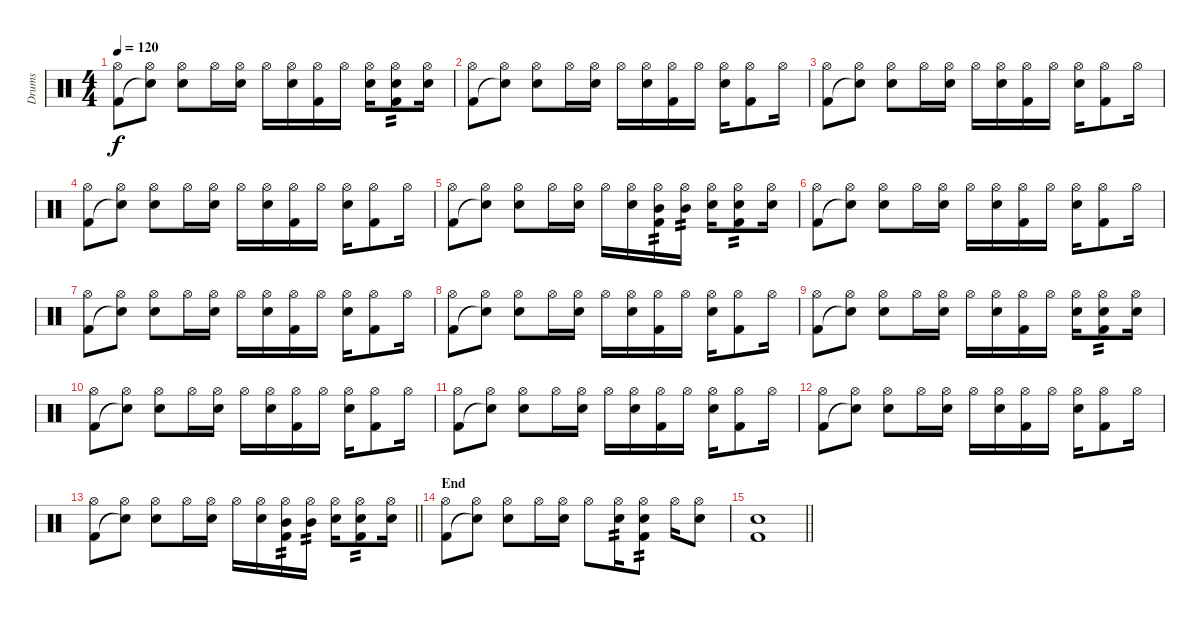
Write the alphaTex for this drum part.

\track ("Drums" "Drums") {instrument percussion}
\staff {score}
\articulation defaults
\ts (4 4)
\tempo 120
\clef neutral
\ks c
("Hi-Hat (open)" "Kick (hit) 2").8{dy f} ("Hi-Hat (open)" "Snare (hit)"{t}).8 ("Hi-Hat (open)" "Electric Snare (hit)").8 "Hi-Hat (open)".16 ("Hi-Hat (open)" "Electric Snare (hit)").16 "Hi-Hat (open)".16 ("Hi-Hat (open)" "Electric Snare (hit)").16 ("Hi-Hat (open)" "Kick (hit) 2").16 "Hi-Hat (open)".16 ("Hi-Hat (open)" "Electric Snare (hit)").16 ("Hi-Hat (open)" "Electric Snare (hit)" "Kick (hit) 2").8{tp 2} ("Hi-Hat (open)" "Electric Snare (hit)").16 |
("Hi-Hat (open)" "Kick (hit) 2").8 ("Hi-Hat (open)" "Snare (hit)"{t}).8 ("Hi-Hat (open)" "Electric Snare (hit)").8 "Hi-Hat (open)".16 ("Hi-Hat (open)" "Electric Snare (hit)").16 "Hi-Hat (open)".16 ("Hi-Hat (open)" "Electric Snare (hit)").16 ("Hi-Hat (open)" "Kick (hit) 2").16 "Hi-Hat (open)".16 ("Hi-Hat (open)" "Electric Snare (hit)").16 ("Hi-Hat (open)" "Kick (hit) 2").8 "Hi-Hat (open)".16 |
("Hi-Hat (open)" "Kick (hit) 2").8 ("Hi-Hat (open)" "Snare (hit)"{t}).8 ("Hi-Hat (open)" "Electric Snare (hit)").8 "Hi-Hat (open)".16 ("Hi-Hat (open)" "Electric Snare (hit)").16 "Hi-Hat (open)".16 ("Hi-Hat (open)" "Electric Snare (hit)").16 ("Hi-Hat (open)" "Kick (hit) 2").16 "Hi-Hat (open)".16 ("Hi-Hat (open)" "Electric Snare (hit)").16 ("Hi-Hat (open)" "Kick (hit) 2").8 "Hi-Hat (open)".16 |
("Hi-Hat (open)" "Kick (hit) 2").8 ("Hi-Hat (open)" "Snare (hit)"{t}).8 ("Hi-Hat (open)" "Electric Snare (hit)").8 "Hi-Hat (open)".16 ("Hi-Hat (open)" "Electric Snare (hit)").16 "Hi-Hat (open)".16 ("Hi-Hat (open)" "Electric Snare (hit)").16 ("Hi-Hat (open)" "Kick (hit) 2").16 "Hi-Hat (open)".16 ("Hi-Hat (open)" "Electric Snare (hit)").16 ("Hi-Hat (open)" "Kick (hit) 2").8 "Hi-Hat (open)".16 |
("Hi-Hat (open)" "Kick (hit) 2").8 ("Hi-Hat (open)" "Snare (hit)"{t}).8 ("Hi-Hat (open)" "Electric Snare (hit)").8 "Hi-Hat (open)".16 ("Hi-Hat (open)" "Electric Snare (hit)").16 "Hi-Hat (open)".16 ("Hi-Hat (open)" "Electric Snare (hit)").16 ("Hi-Hat (open)" "Mid Tom (hit)" "Kick (hit) 2").16{tp 2} ("Hi-Hat (open)" "Mid Tom (hit)").16{tp 2} ("Hi-Hat (open)" "Electric Snare (hit)").16 ("Hi-Hat (open)" "Electric Snare (hit)" "Kick (hit) 2").8{tp 2} ("Hi-Hat (open)" "Electric Snare (hit)").16 |
("Hi-Hat (open)" "Kick (hit) 2").8 ("Hi-Hat (open)" "Snare (hit)"{t}).8 ("Hi-Hat (open)" "Electric Snare (hit)").8 "Hi-Hat (open)".16 ("Hi-Hat (open)" "Electric Snare (hit)").16 "Hi-Hat (open)".16 ("Hi-Hat (open)" "Electric Snare (hit)").16 ("Hi-Hat (open)" "Kick (hit) 2").16 "Hi-Hat (open)".16 ("Hi-Hat (open)" "Electric Snare (hit)").16 ("Hi-Hat (open)" "Kick (hit) 2").8 "Hi-Hat (open)".16 |
("Hi-Hat (open)" "Kick (hit) 2").8 ("Hi-Hat (open)" "Snare (hit)"{t}).8 ("Hi-Hat (open)" "Electric Snare (hit)").8 "Hi-Hat (open)".16 ("Hi-Hat (open)" "Electric Snare (hit)").16 "Hi-Hat (open)".16 ("Hi-Hat (open)" "Electric Snare (hit)").16 ("Hi-Hat (open)" "Kick (hit) 2").16 "Hi-Hat (open)".16 ("Hi-Hat (open)" "Electric Snare (hit)").16 ("Hi-Hat (open)" "Kick (hit) 2").8 "Hi-Hat (open)".16 |
("Hi-Hat (open)" "Kick (hit) 2").8 ("Hi-Hat (open)" "Snare (hit)"{t}).8 ("Hi-Hat (open)" "Electric Snare (hit)").8 "Hi-Hat (open)".16 ("Hi-Hat (open)" "Electric Snare (hit)").16 "Hi-Hat (open)".16 ("Hi-Hat (open)" "Electric Snare (hit)").16 ("Hi-Hat (open)" "Kick (hit) 2").16 "Hi-Hat (open)".16 ("Hi-Hat (open)" "Electric Snare (hit)").16 ("Hi-Hat (open)" "Kick (hit) 2").8 "Hi-Hat (open)".16 |
("Hi-Hat (open)" "Kick (hit) 2").8 ("Hi-Hat (open)" "Snare (hit)"{t}).8 ("Hi-Hat (open)" "Electric Snare (hit)").8 "Hi-Hat (open)".16 ("Hi-Hat (open)" "Electric Snare (hit)").16 "Hi-Hat (open)".16 ("Hi-Hat (open)" "Electric Snare (hit)").16 ("Hi-Hat (open)" "Kick (hit) 2").16 "Hi-Hat (open)".16 ("Hi-Hat (open)" "Electric Snare (hit)").16 ("Hi-Hat (open)" "Electric Snare (hit)" "Kick (hit) 2").8{tp 2} ("Hi-Hat (open)" "Electric Snare (hit)").16 |
("Hi-Hat (open)" "Kick (hit) 2").8 ("Hi-Hat (open)" "Snare (hit)"{t}).8 ("Hi-Hat (open)" "Electric Snare (hit)").8 "Hi-Hat (open)".16 ("Hi-Hat (open)" "Electric Snare (hit)").16 "Hi-Hat (open)".16 ("Hi-Hat (open)" "Electric Snare (hit)").16 ("Hi-Hat (open)" "Kick (hit) 2").16 "Hi-Hat (open)".16 ("Hi-Hat (open)" "Electric Snare (hit)").16 ("Hi-Hat (open)" "Kick (hit) 2").8 "Hi-Hat (open)".16 |
("Hi-Hat (open)" "Kick (hit) 2").8 ("Hi-Hat (open)" "Snare (hit)"{t}).8 ("Hi-Hat (open)" "Electric Snare (hit)").8 "Hi-Hat (open)".16 ("Hi-Hat (open)" "Electric Snare (hit)").16 "Hi-Hat (open)".16 ("Hi-Hat (open)" "Electric Snare (hit)").16 ("Hi-Hat (open)" "Kick (hit) 2").16 "Hi-Hat (open)".16 ("Hi-Hat (open)" "Electric Snare (hit)").16 ("Hi-Hat (open)" "Kick (hit) 2").8 "Hi-Hat (open)".16 |
("Hi-Hat (open)" "Kick (hit) 2").8 ("Hi-Hat (open)" "Snare (hit)"{t}).8 ("Hi-Hat (open)" "Electric Snare (hit)").8 "Hi-Hat (open)".16 ("Hi-Hat (open)" "Electric Snare (hit)").16 "Hi-Hat (open)".16 ("Hi-Hat (open)" "Electric Snare (hit)").16 ("Hi-Hat (open)" "Kick (hit) 2").16 "Hi-Hat (open)".16 ("Hi-Hat (open)" "Electric Snare (hit)").16 ("Hi-Hat (open)" "Kick (hit) 2").8 "Hi-Hat (open)".16 |
\barLineRight lightlight
("Hi-Hat (open)" "Kick (hit) 2").8 ("Hi-Hat (open)" "Snare (hit)"{t}).8 ("Hi-Hat (open)" "Electric Snare (hit)").8 "Hi-Hat (open)".16 ("Hi-Hat (open)" "Electric Snare (hit)").16 "Hi-Hat (open)".16 ("Hi-Hat (open)" "Electric Snare (hit)").16 ("Hi-Hat (open)" "Mid Tom (hit)" "Kick (hit) 2").16{tp 2} ("Hi-Hat (open)" "Mid Tom (hit)").16{tp 2} ("Hi-Hat (open)" "Electric Snare (hit)").16 ("Hi-Hat (open)" "Electric Snare (hit)" "Kick (hit) 2").8{tp 2} ("Hi-Hat (open)" "Electric Snare (hit)").16 |
\section ("" "End")
("Hi-Hat (open)" "Kick (hit) 2").8 ("Hi-Hat (open)" "Snare (hit)"{t}).8 ("Hi-Hat (open)" "Electric Snare (hit)").8 "Hi-Hat (open)".16 ("Hi-Hat (open)" "Electric Snare (hit)").16 "Hi-Hat (open)".8 ("Hi-Hat (open)" "Electric Snare (hit)").16{tp 2} ("Hi-Hat (open)" "Electric Snare (hit)" "Kick (hit) 2").8{tp 2} "Hi-Hat (open)".16 ("Hi-Hat (open)" "Electric Snare (hit)").8 |
\barLineRight lightlight
("Electric Snare (hit)" "Kick (hit) 2").1
